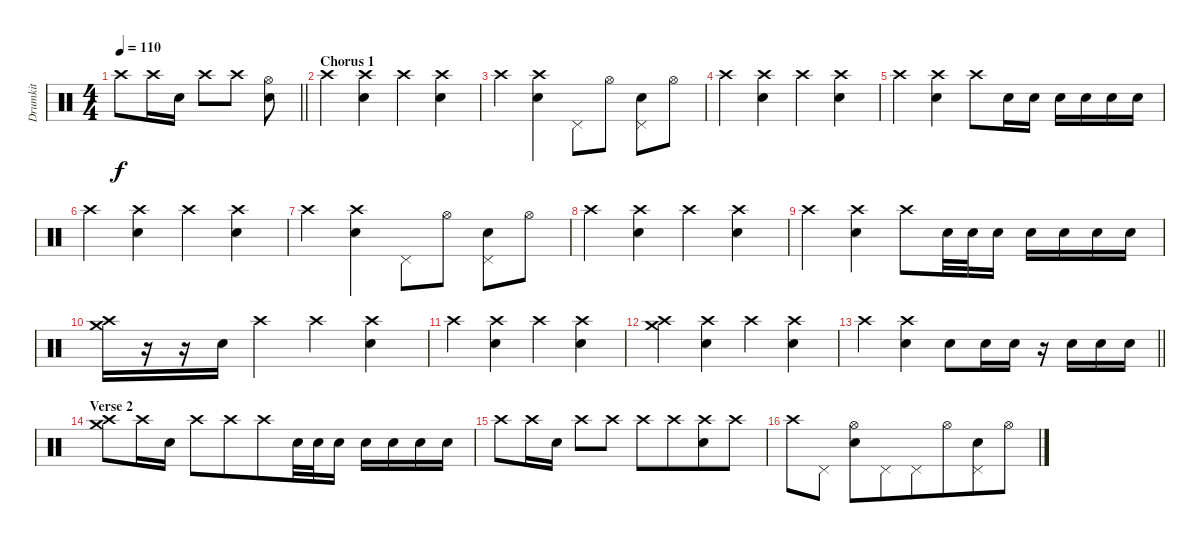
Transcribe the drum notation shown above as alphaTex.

\track ("Drumkit" "Drumkit") {instrument percussion}
\staff {score}
\articulation defaults
\ts (4 4)
\tempo 110
\clef neutral
\barLineRight lightlight
\ks c "Crash high (hit)".8{dy f} "Crash high (hit)".16 "Electric Snare (hit)".16 "Crash high (hit)".8 "Crash high (hit)".8
("Hi-Hat (open)" "Electric Snare (hit)").8 |
\section ("" "Chorus 1")
"Crash high (hit)".4{beam merge} ("Crash high (hit)" "Electric Snare (hit)").4{beam merge} "Crash high (hit)".4 ("Crash high (hit)" "Electric Snare (hit)").4 |
"Crash high (hit)".4 ("Crash high (hit)" "Electric Snare (hit)").4{beam merge} "Pedal Hi-Hat (hit)".8 "Hi-Hat (open)".8 ("Pedal Hi-Hat (hit)" "Electric Snare (hit)").8 "Hi-Hat (open)".8 |
"Crash high (hit)".4{beam merge} ("Crash high (hit)" "Electric Snare (hit)").4{beam merge} "Crash high (hit)".4 ("Crash high (hit)" "Electric Snare (hit)").4 |
"Crash high (hit)".4{beam merge} ("Crash high (hit)" "Electric Snare (hit)").4{beam merge} "Crash high (hit)".8 "Electric Snare (hit)".16 "Electric Snare (hit)".16 "Electric Snare (hit)".16{beam merge} "Electric Snare (hit)".16 "Electric Snare (hit)".16 "Electric Snare (hit)".16 |
"Crash high (hit)".4{beam merge} ("Crash high (hit)" "Electric Snare (hit)").4{beam merge} "Crash high (hit)".4 ("Crash high (hit)" "Electric Snare (hit)").4 |
"Crash high (hit)".4 ("Crash high (hit)" "Electric Snare (hit)").4{beam merge} "Pedal Hi-Hat (hit)".8 "Hi-Hat (open)".8 ("Pedal Hi-Hat (hit)" "Electric Snare (hit)").8 "Hi-Hat (open)".8 |
"Crash high (hit)".4{beam merge} ("Crash high (hit)" "Electric Snare (hit)").4{beam merge} "Crash high (hit)".4 ("Crash high (hit)" "Electric Snare (hit)").4 |
"Crash high (hit)".4{beam merge} ("Crash high (hit)" "Electric Snare (hit)").4{beam merge} "Crash high (hit)".8 "Electric Snare (hit)".32 "Electric Snare (hit)".32 "Electric Snare (hit)".16 "Electric Snare (hit)".16{beam merge} "Electric Snare (hit)".16 "Electric Snare (hit)".16 "Electric Snare (hit)".16 |
("Crash medium (hit)" "Crash high (hit)").16 r.16 r.16{beam merge} "Electric Snare (hit)".16{beam merge} "Crash high (hit)".4 "Crash high (hit)".4 ("Crash high (hit)" "Electric Snare (hit)").4 |
"Crash high (hit)".4 ("Crash high (hit)" "Electric Snare (hit)").4{beam merge} "Crash high (hit)".4 ("Crash high (hit)" "Electric Snare (hit)").4 |
("Crash medium (hit)" "Crash high (hit)").4{beam merge} ("Crash high (hit)" "Electric Snare (hit)").4 "Crash high (hit)".4 ("Crash high (hit)" "Electric Snare (hit)").4 |
\barLineRight lightlight "Crash high (hit)".4
("Crash high (hit)" "Electric Snare (hit)").4{beam merge} "Electric Snare (hit)".8 "Electric Snare (hit)".16 "Electric Snare (hit)".16 r.16 "Electric Snare (hit)".16 "Electric Snare (hit)".16 "Electric Snare (hit)".16 |
\section ("" "Verse 2")
("Crash medium (hit)" "Crash high (hit)").8 "Crash high (hit)".16{beam merge} "Electric Snare (hit)".16 "Crash high (hit)".8 "Crash high (hit)".8{beam merge} "Crash high (hit)".8{beam merge} "Electric Snare (hit)".32{beam merge} "Electric Snare (hit)".32 "Electric Snare (hit)".16 "Electric Snare (hit)".16{beam merge} "Electric Snare (hit)".16 "Electric Snare (hit)".16{beam merge} "Electric Snare (hit)".16 |
"Crash high (hit)".8 "Crash high (hit)".16{beam merge} "Electric Snare (hit)".16 "Crash high (hit)".8 "Crash high (hit)".8 "Crash high (hit)".8 "Crash high (hit)".8{beam merge} ("Crash high (hit)" "Electric Snare (hit)").8 "Crash high (hit)".8 |
"Crash high (hit)".8 "Pedal Hi-Hat (hit)".8 ("Hi-Hat (open)" "Electric Snare (hit)").8 "Pedal Hi-Hat (hit)".8{beam merge} "Pedal Hi-Hat (hit)".8 "Hi-Hat (open)".8{beam merge} ("Pedal Hi-Hat (hit)" "Electric Snare (hit)").8 "Hi-Hat (open)".8
